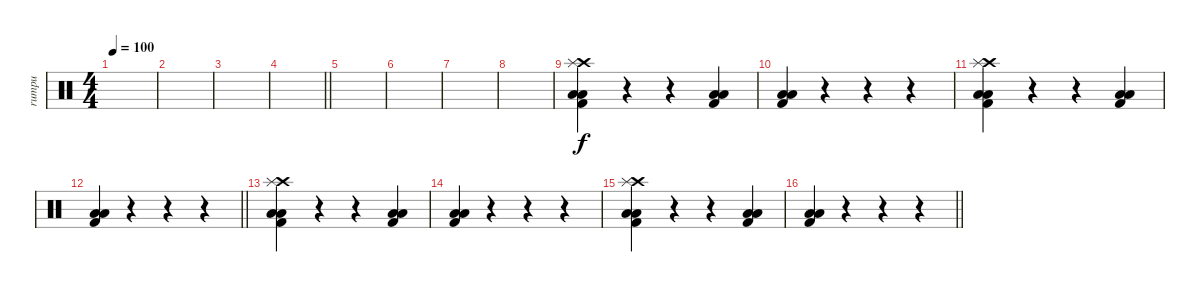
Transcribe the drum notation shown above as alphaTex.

\track ("rumpu" "rumpu") {instrument percussion}
\staff {score}
\articulation defaults
\ts (4 4)
\tempo 100
\clef neutral
\ks c
|
|
|
\barLineRight lightlight
|
|
|
|
|
("Kick (hit) 2" "Low Tom (hit)" "Low Floor Tom (hit)" "Crash high (hit)" "Splash (hit)").4 r.4 r.4 ("Kick (hit) 2" "Low Tom (hit)" "Low Floor Tom (hit)").4 |
("Kick (hit) 2" "Low Tom (hit)" "Low Floor Tom (hit)").4 r.4 r.4 r.4 |
("Kick (hit) 2" "Low Tom (hit)" "Low Floor Tom (hit)" "Crash high (hit)" "Splash (hit)").4 r.4 r.4 ("Kick (hit) 2" "Low Tom (hit)" "Low Floor Tom (hit)").4 |
\barLineRight lightlight
("Kick (hit) 2" "Low Tom (hit)" "Low Floor Tom (hit)").4 r.4 r.4 r.4 |
("Kick (hit) 2" "Low Tom (hit)" "Low Floor Tom (hit)" "Crash high (hit)" "Splash (hit)").4 r.4 r.4 ("Kick (hit) 2" "Low Tom (hit)" "Low Floor Tom (hit)").4 |
("Kick (hit) 2" "Low Tom (hit)" "Low Floor Tom (hit)").4 r.4 r.4 r.4 |
("Kick (hit) 2" "Low Tom (hit)" "Low Floor Tom (hit)" "Crash high (hit)" "Splash (hit)").4 r.4 r.4 ("Kick (hit) 2" "Low Tom (hit)" "Low Floor Tom (hit)").4 |
\barLineRight lightlight
("Kick (hit) 2" "Low Tom (hit)" "Low Floor Tom (hit)").4 r.4 r.4 r.4
